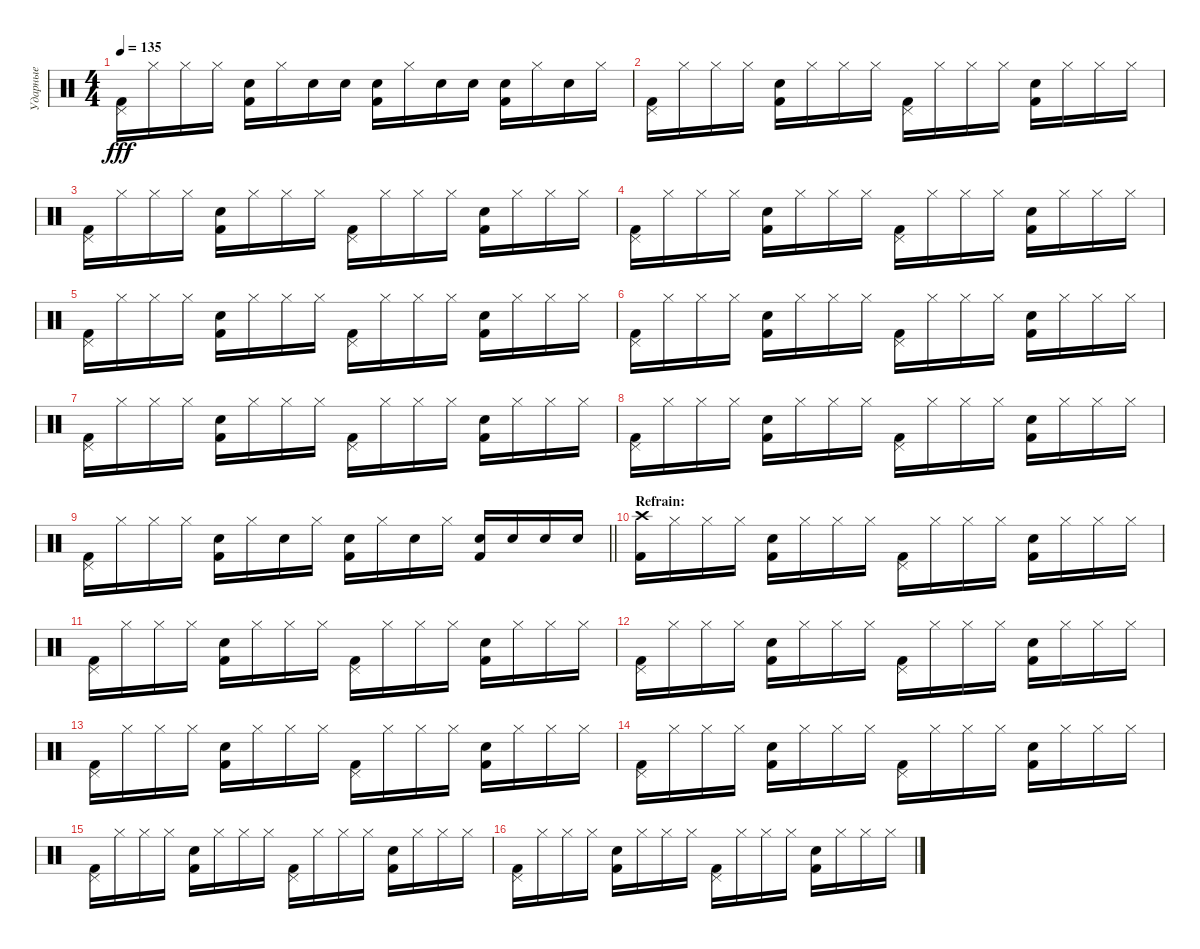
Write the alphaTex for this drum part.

\track ("Ударные" "Ударные") {instrument percussion}
\staff {score}
\articulation defaults
\ts (4 4)
\tempo 135
\clef neutral
\ks c
("Pedal Hi-Hat (hit)" "Kick (hit) 2").16{dy fff} "Hi-Hat (closed)".16 "Hi-Hat (closed)".16 "Hi-Hat (closed)".16 ("Snare (hit) 2" "Kick (hit) 2").16 "Hi-Hat (closed)".16 "Snare (hit) 2".16 "Snare (hit) 2".16 ("Snare (hit) 2" "Kick (hit) 2").16 "Hi-Hat (closed)".16 "Snare (hit) 2".16 "Snare (hit) 2".16 ("Snare (hit) 2" "Kick (hit) 2").16 "Hi-Hat (closed)".16 "Snare (hit) 2".16 "Hi-Hat (closed)".16 |
("Pedal Hi-Hat (hit)" "Kick (hit) 2").16 "Hi-Hat (closed)".16 "Hi-Hat (closed)".16 "Hi-Hat (closed)".16 ("Snare (hit) 2" "Kick (hit) 2").16 "Hi-Hat (closed)".16 "Hi-Hat (closed)".16 "Hi-Hat (closed)".16 ("Pedal Hi-Hat (hit)" "Kick (hit) 2").16 "Hi-Hat (closed)".16 "Hi-Hat (closed)".16 "Hi-Hat (closed)".16 ("Snare (hit) 2" "Kick (hit) 2").16 "Hi-Hat (closed)".16 "Hi-Hat (closed)".16 "Hi-Hat (closed)".16 |
("Pedal Hi-Hat (hit)" "Kick (hit) 2").16 "Hi-Hat (closed)".16 "Hi-Hat (closed)".16 "Hi-Hat (closed)".16 ("Snare (hit) 2" "Kick (hit) 2").16 "Hi-Hat (closed)".16 "Hi-Hat (closed)".16 "Hi-Hat (closed)".16 ("Pedal Hi-Hat (hit)" "Kick (hit) 2").16 "Hi-Hat (closed)".16 "Hi-Hat (closed)".16 "Hi-Hat (closed)".16 ("Snare (hit) 2" "Kick (hit) 2").16 "Hi-Hat (closed)".16 "Hi-Hat (closed)".16 "Hi-Hat (closed)".16 |
("Pedal Hi-Hat (hit)" "Kick (hit) 2").16 "Hi-Hat (closed)".16 "Hi-Hat (closed)".16 "Hi-Hat (closed)".16 ("Snare (hit) 2" "Kick (hit) 2").16 "Hi-Hat (closed)".16 "Hi-Hat (closed)".16 "Hi-Hat (closed)".16 ("Pedal Hi-Hat (hit)" "Kick (hit) 2").16 "Hi-Hat (closed)".16 "Hi-Hat (closed)".16 "Hi-Hat (closed)".16 ("Snare (hit) 2" "Kick (hit) 2").16 "Hi-Hat (closed)".16 "Hi-Hat (closed)".16 "Hi-Hat (closed)".16 |
("Pedal Hi-Hat (hit)" "Kick (hit) 2").16 "Hi-Hat (closed)".16 "Hi-Hat (closed)".16 "Hi-Hat (closed)".16 ("Snare (hit) 2" "Kick (hit) 2").16 "Hi-Hat (closed)".16 "Hi-Hat (closed)".16 "Hi-Hat (closed)".16 ("Pedal Hi-Hat (hit)" "Kick (hit) 2").16 "Hi-Hat (closed)".16 "Hi-Hat (closed)".16 "Hi-Hat (closed)".16 ("Snare (hit) 2" "Kick (hit) 2").16 "Hi-Hat (closed)".16 "Hi-Hat (closed)".16 "Hi-Hat (closed)".16 |
("Pedal Hi-Hat (hit)" "Kick (hit) 2").16 "Hi-Hat (closed)".16 "Hi-Hat (closed)".16 "Hi-Hat (closed)".16 ("Snare (hit) 2" "Kick (hit) 2").16 "Hi-Hat (closed)".16 "Hi-Hat (closed)".16 "Hi-Hat (closed)".16 ("Pedal Hi-Hat (hit)" "Kick (hit) 2").16 "Hi-Hat (closed)".16 "Hi-Hat (closed)".16 "Hi-Hat (closed)".16 ("Snare (hit) 2" "Kick (hit) 2").16 "Hi-Hat (closed)".16 "Hi-Hat (closed)".16 "Hi-Hat (closed)".16 |
("Pedal Hi-Hat (hit)" "Kick (hit) 2").16 "Hi-Hat (closed)".16 "Hi-Hat (closed)".16 "Hi-Hat (closed)".16 ("Snare (hit) 2" "Kick (hit) 2").16 "Hi-Hat (closed)".16 "Hi-Hat (closed)".16 "Hi-Hat (closed)".16 ("Pedal Hi-Hat (hit)" "Kick (hit) 2").16 "Hi-Hat (closed)".16 "Hi-Hat (closed)".16 "Hi-Hat (closed)".16 ("Snare (hit) 2" "Kick (hit) 2").16 "Hi-Hat (closed)".16 "Hi-Hat (closed)".16 "Hi-Hat (closed)".16 |
("Pedal Hi-Hat (hit)" "Kick (hit) 2").16 "Hi-Hat (closed)".16 "Hi-Hat (closed)".16 "Hi-Hat (closed)".16 ("Snare (hit) 2" "Kick (hit) 2").16 "Hi-Hat (closed)".16 "Hi-Hat (closed)".16 "Hi-Hat (closed)".16 ("Pedal Hi-Hat (hit)" "Kick (hit) 2").16 "Hi-Hat (closed)".16 "Hi-Hat (closed)".16 "Hi-Hat (closed)".16 ("Snare (hit) 2" "Kick (hit) 2").16 "Hi-Hat (closed)".16 "Hi-Hat (closed)".16 "Hi-Hat (closed)".16 |
\barLineRight lightlight
("Pedal Hi-Hat (hit)" "Kick (hit) 2").16 "Hi-Hat (closed)".16 "Hi-Hat (closed)".16 "Hi-Hat (closed)".16 ("Snare (hit) 2" "Kick (hit) 2").16 "Hi-Hat (closed)".16 "Snare (hit) 2".16 "Hi-Hat (closed)".16 ("Snare (hit) 2" "Kick (hit) 2").16 "Hi-Hat (closed)".16 "Snare (hit) 2".16 "Hi-Hat (closed)".16 ("Snare (hit) 2" "Kick (hit) 2").16 "Snare (hit) 2".16 "Snare (hit) 2".16 "Snare (hit) 2".16 |
\section ("" "Refrain:")
("Crash high (hit)" "Kick (hit) 2").16 "Hi-Hat (closed)".16 "Hi-Hat (closed)".16 "Hi-Hat (closed)".16 ("Snare (hit) 2" "Kick (hit) 2").16 "Hi-Hat (closed)".16 "Hi-Hat (closed)".16 "Hi-Hat (closed)".16 ("Pedal Hi-Hat (hit)" "Kick (hit) 2").16 "Hi-Hat (closed)".16 "Hi-Hat (closed)".16 "Hi-Hat (closed)".16 ("Snare (hit) 2" "Kick (hit) 2").16 "Hi-Hat (closed)".16 "Hi-Hat (closed)".16 "Hi-Hat (closed)".16 |
("Pedal Hi-Hat (hit)" "Kick (hit) 2").16 "Hi-Hat (closed)".16 "Hi-Hat (closed)".16 "Hi-Hat (closed)".16 ("Snare (hit) 2" "Kick (hit) 2").16 "Hi-Hat (closed)".16 "Hi-Hat (closed)".16 "Hi-Hat (closed)".16 ("Pedal Hi-Hat (hit)" "Kick (hit) 2").16 "Hi-Hat (closed)".16 "Hi-Hat (closed)".16 "Hi-Hat (closed)".16 ("Snare (hit) 2" "Kick (hit) 2").16 "Hi-Hat (closed)".16 "Hi-Hat (closed)".16 "Hi-Hat (closed)".16 |
("Pedal Hi-Hat (hit)" "Kick (hit) 2").16 "Hi-Hat (closed)".16 "Hi-Hat (closed)".16 "Hi-Hat (closed)".16 ("Snare (hit) 2" "Kick (hit) 2").16 "Hi-Hat (closed)".16 "Hi-Hat (closed)".16 "Hi-Hat (closed)".16 ("Pedal Hi-Hat (hit)" "Kick (hit) 2").16 "Hi-Hat (closed)".16 "Hi-Hat (closed)".16 "Hi-Hat (closed)".16 ("Snare (hit) 2" "Kick (hit) 2").16 "Hi-Hat (closed)".16 "Hi-Hat (closed)".16 "Hi-Hat (closed)".16 |
("Pedal Hi-Hat (hit)" "Kick (hit) 2").16 "Hi-Hat (closed)".16 "Hi-Hat (closed)".16 "Hi-Hat (closed)".16 ("Snare (hit) 2" "Kick (hit) 2").16 "Hi-Hat (closed)".16 "Hi-Hat (closed)".16 "Hi-Hat (closed)".16 ("Pedal Hi-Hat (hit)" "Kick (hit) 2").16 "Hi-Hat (closed)".16 "Hi-Hat (closed)".16 "Hi-Hat (closed)".16 ("Snare (hit) 2" "Kick (hit) 2").16 "Hi-Hat (closed)".16 "Hi-Hat (closed)".16 "Hi-Hat (closed)".16 |
("Pedal Hi-Hat (hit)" "Kick (hit) 2").16 "Hi-Hat (closed)".16 "Hi-Hat (closed)".16 "Hi-Hat (closed)".16 ("Snare (hit) 2" "Kick (hit) 2").16 "Hi-Hat (closed)".16 "Hi-Hat (closed)".16 "Hi-Hat (closed)".16 ("Pedal Hi-Hat (hit)" "Kick (hit) 2").16 "Hi-Hat (closed)".16 "Hi-Hat (closed)".16 "Hi-Hat (closed)".16 ("Snare (hit) 2" "Kick (hit) 2").16 "Hi-Hat (closed)".16 "Hi-Hat (closed)".16 "Hi-Hat (closed)".16 |
("Pedal Hi-Hat (hit)" "Kick (hit) 2").16 "Hi-Hat (closed)".16 "Hi-Hat (closed)".16 "Hi-Hat (closed)".16 ("Snare (hit) 2" "Kick (hit) 2").16 "Hi-Hat (closed)".16 "Hi-Hat (closed)".16 "Hi-Hat (closed)".16 ("Pedal Hi-Hat (hit)" "Kick (hit) 2").16 "Hi-Hat (closed)".16 "Hi-Hat (closed)".16 "Hi-Hat (closed)".16 ("Snare (hit) 2" "Kick (hit) 2").16 "Hi-Hat (closed)".16 "Hi-Hat (closed)".16 "Hi-Hat (closed)".16 |
("Pedal Hi-Hat (hit)" "Kick (hit) 2").16 "Hi-Hat (closed)".16 "Hi-Hat (closed)".16 "Hi-Hat (closed)".16 ("Snare (hit) 2" "Kick (hit) 2").16 "Hi-Hat (closed)".16 "Hi-Hat (closed)".16 "Hi-Hat (closed)".16 ("Pedal Hi-Hat (hit)" "Kick (hit) 2").16 "Hi-Hat (closed)".16 "Hi-Hat (closed)".16 "Hi-Hat (closed)".16 ("Snare (hit) 2" "Kick (hit) 2").16 "Hi-Hat (closed)".16 "Hi-Hat (closed)".16 "Hi-Hat (closed)".16
